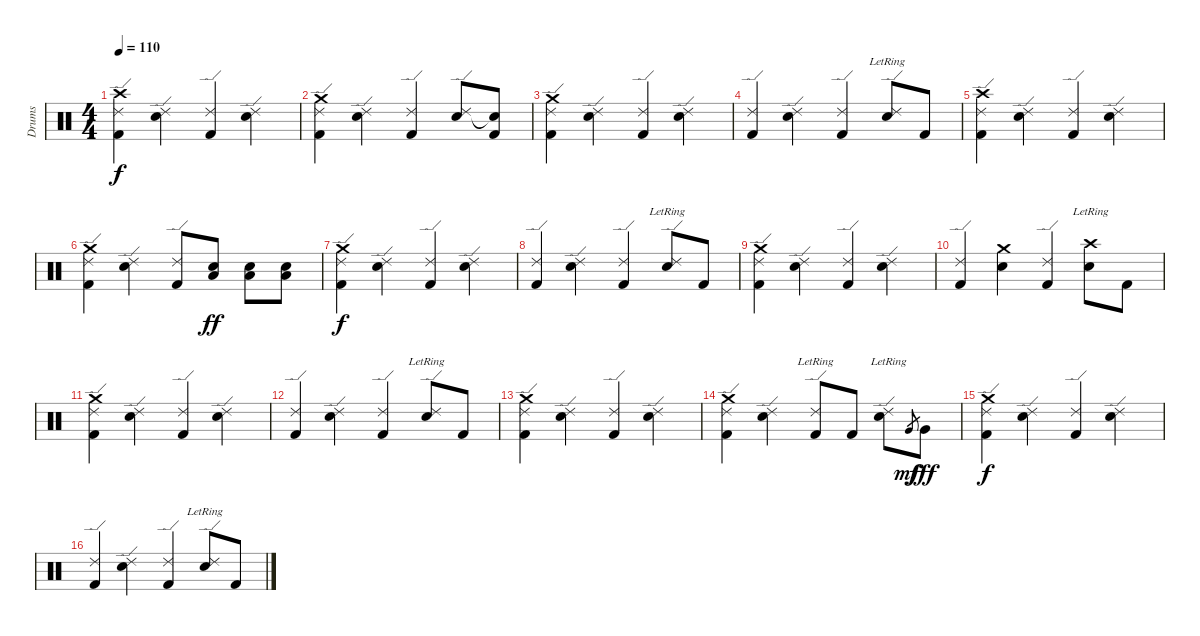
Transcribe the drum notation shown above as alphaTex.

\track ("Drums" "Drums") {instrument percussion}
\staff {score}
\articulation defaults
\ts (4 4)
\tempo 110
\clef neutral
\ks c
("Crash high (hit)" "Ride (edge) 2" "Kick (hit) 2").4{dy f} ("Ride (edge) 2" "Electric Snare (hit)").4 ("Ride (edge) 2" "Kick (hit) 2").4 ("Ride (edge) 2" "Electric Snare (hit)").4 |
("Crash medium (hit)" "Ride (edge) 2" "Kick (hit) 2").4 ("Ride (edge) 2" "Electric Snare (hit)").4 ("Ride (edge) 2" "Kick (hit) 2").4 ("Ride (edge) 2" "Electric Snare (hit)").8 ("Snare (hit)"{t} "Kick (hit) 2").8 |
("Crash medium (hit)" "Ride (edge) 2" "Kick (hit) 2").4 ("Ride (edge) 2" "Electric Snare (hit)").4 ("Ride (edge) 2" "Kick (hit) 2").4 ("Ride (edge) 2" "Electric Snare (hit)").4 |
("Ride (edge) 2" "Kick (hit) 2").4 ("Ride (edge) 2" "Electric Snare (hit)").4 ("Ride (edge) 2" "Kick (hit) 2").4 ("Ride (edge) 2"{lr} "Electric Snare (hit)").8 "Kick (hit) 2".8 |
("Crash high (hit)" "Ride (edge) 2" "Kick (hit) 2").4 ("Ride (edge) 2" "Electric Snare (hit)").4 ("Ride (edge) 2" "Kick (hit) 2").4 ("Ride (edge) 2" "Electric Snare (hit)").4 |
("Crash medium (hit)" "Ride (edge) 2" "Kick (hit) 2").4 ("Ride (edge) 2" "Electric Snare (hit)").4 ("Ride (edge) 2" "Kick (hit) 2").8 ("Low Floor Tom (hit)" "Electric Snare (hit)").8{dy ff} ("Low Floor Tom (hit)" "Electric Snare (hit)").8 ("Low Floor Tom (hit)" "Electric Snare (hit)").8 |
("Crash medium (hit)" "Ride (edge) 2" "Kick (hit) 2").4{dy f} ("Ride (edge) 2" "Electric Snare (hit)").4 ("Ride (edge) 2" "Kick (hit) 2").4 ("Ride (edge) 2" "Electric Snare (hit)").4 |
("Ride (edge) 2" "Kick (hit) 2").4 ("Ride (edge) 2" "Electric Snare (hit)").4 ("Ride (edge) 2" "Kick (hit) 2").4 ("Ride (edge) 2"{lr} "Electric Snare (hit)").8 "Kick (hit) 2".8 |
("Crash medium (hit)" "Ride (edge) 2" "Kick (hit) 2").4 ("Ride (edge) 2" "Electric Snare (hit)").4 ("Ride (edge) 2" "Kick (hit) 2").4 ("Ride (edge) 2" "Electric Snare (hit)").4 |
("Ride (edge) 2" "Kick (hit) 2").4 ("Crash medium (hit)" "Electric Snare (hit)").4 ("Ride (edge) 2" "Kick (hit) 2").4 ("Crash high (hit)"{lr} "Electric Snare (hit)").8 "Kick (hit) 2".8 |
("Crash medium (hit)" "Ride (edge) 2" "Kick (hit) 2").4 ("Ride (edge) 2" "Electric Snare (hit)").4 ("Ride (edge) 2" "Kick (hit) 2").4 ("Ride (edge) 2" "Electric Snare (hit)").4 |
("Ride (edge) 2" "Kick (hit) 2").4 ("Ride (edge) 2" "Electric Snare (hit)").4 ("Ride (edge) 2" "Kick (hit) 2").4 ("Ride (edge) 2"{lr} "Electric Snare (hit)").8 "Kick (hit) 2".8 |
("Crash medium (hit)" "Ride (edge) 2" "Kick (hit) 2").4 ("Ride (edge) 2" "Electric Snare (hit)").4 ("Ride (edge) 2" "Kick (hit) 2").4 ("Ride (edge) 2" "Electric Snare (hit)").4 |
("Crash medium (hit)" "Ride (edge) 2" "Kick (hit) 2").4 ("Ride (edge) 2" "Electric Snare (hit)").4 ("Ride (edge) 2"{lr} "Kick (hit) 2").8 "Kick (hit) 2".8 ("Ride (edge) 2"{lr} "Electric Snare (hit)").8 "Very Low Tom (hit)".8{gr dy mf} "Very Low Tom (hit)".8{dy fff} |
("Crash medium (hit)" "Ride (edge) 2" "Kick (hit) 2").4{dy f} ("Ride (edge) 2" "Electric Snare (hit)").4 ("Ride (edge) 2" "Kick (hit) 2").4 ("Ride (edge) 2" "Electric Snare (hit)").4 |
("Ride (edge) 2" "Kick (hit) 2").4 ("Ride (edge) 2" "Electric Snare (hit)").4 ("Ride (edge) 2" "Kick (hit) 2").4 ("Ride (edge) 2"{lr} "Electric Snare (hit)").8 "Kick (hit) 2".8
